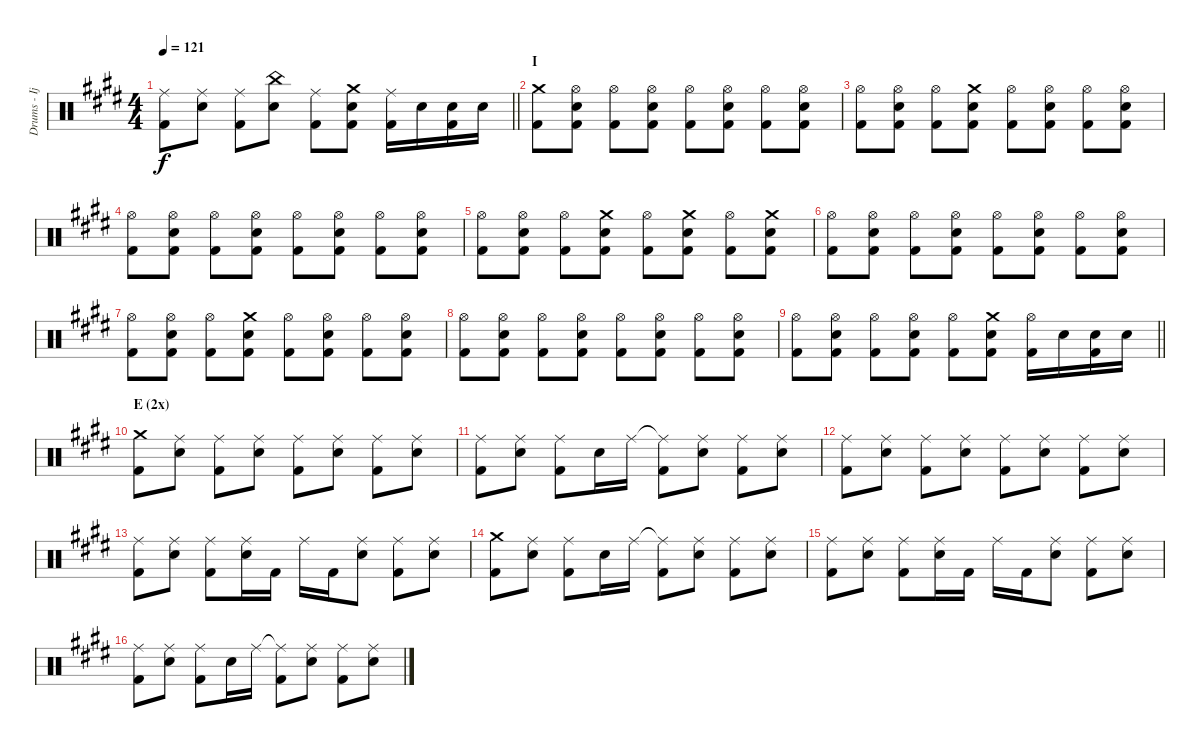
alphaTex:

\track ("Drums - Ijichi Kiyoshi" "Drums - Ij") {instrument percussion}
\staff {score}
\articulation defaults
\ts (4 4)
\tempo 121
\clef neutral
\barLineRight lightlight
\ks e
("Ride (middle)" "Kick (hit) 2").8{dy f} ("Ride (middle)" "Electric Snare (hit)").8 ("Ride (middle)" "Kick (hit) 2").8 ("China (hit)" "Electric Snare (hit)").8 ("Ride (middle)" "Kick (hit) 2").8 ("Crash medium (hit)" "Electric Snare (hit)" "Kick (hit) 2").8 ("Ride (middle)" "Kick (hit) 2").16 "Electric Snare (hit)".16 ("Electric Snare (hit)" "Kick (hit) 2").16 "Electric Snare (hit)".16 |
\section ("" "I")
("Crash medium (hit)" "Kick (hit) 2").8 ("Hi-Hat (open)" "Electric Snare (hit)" "Kick (hit) 2").8 ("Hi-Hat (open)" "Kick (hit) 2").8 ("Hi-Hat (open)" "Electric Snare (hit)" "Kick (hit) 2").8 ("Hi-Hat (open)" "Kick (hit) 2").8 ("Hi-Hat (open)" "Electric Snare (hit)" "Kick (hit) 2").8 ("Hi-Hat (open)" "Kick (hit) 2").8 ("Hi-Hat (open)" "Electric Snare (hit)" "Kick (hit) 2").8 |
("Hi-Hat (open)" "Kick (hit) 2").8 ("Hi-Hat (open)" "Electric Snare (hit)" "Kick (hit) 2").8 ("Hi-Hat (open)" "Kick (hit) 2").8 ("Crash medium (hit)" "Electric Snare (hit)" "Kick (hit) 2").8 ("Hi-Hat (open)" "Kick (hit) 2").8 ("Hi-Hat (open)" "Electric Snare (hit)" "Kick (hit) 2").8 ("Hi-Hat (open)" "Kick (hit) 2").8 ("Hi-Hat (open)" "Electric Snare (hit)" "Kick (hit) 2").8 |
("Hi-Hat (open)" "Kick (hit) 2").8 ("Hi-Hat (open)" "Electric Snare (hit)" "Kick (hit) 2").8 ("Hi-Hat (open)" "Kick (hit) 2").8 ("Hi-Hat (open)" "Electric Snare (hit)" "Kick (hit) 2").8 ("Hi-Hat (open)" "Kick (hit) 2").8 ("Hi-Hat (open)" "Electric Snare (hit)" "Kick (hit) 2").8 ("Hi-Hat (open)" "Kick (hit) 2").8 ("Hi-Hat (open)" "Electric Snare (hit)" "Kick (hit) 2").8 |
("Hi-Hat (open)" "Kick (hit) 2").8 ("Hi-Hat (open)" "Electric Snare (hit)" "Kick (hit) 2").8 ("Hi-Hat (open)" "Kick (hit) 2").8 ("Crash medium (hit)" "Electric Snare (hit)" "Kick (hit) 2").8 ("Hi-Hat (open)" "Kick (hit) 2").8 ("Crash medium (hit)" "Electric Snare (hit)" "Kick (hit) 2").8 ("Hi-Hat (open)" "Kick (hit) 2").8 ("Crash medium (hit)" "Electric Snare (hit)" "Kick (hit) 2").8 |
("Hi-Hat (open)" "Kick (hit) 2").8 ("Hi-Hat (open)" "Electric Snare (hit)" "Kick (hit) 2").8 ("Hi-Hat (open)" "Kick (hit) 2").8 ("Hi-Hat (open)" "Electric Snare (hit)" "Kick (hit) 2").8 ("Hi-Hat (open)" "Kick (hit) 2").8 ("Hi-Hat (open)" "Electric Snare (hit)" "Kick (hit) 2").8 ("Hi-Hat (open)" "Kick (hit) 2").8 ("Hi-Hat (open)" "Electric Snare (hit)" "Kick (hit) 2").8 |
("Hi-Hat (open)" "Kick (hit) 2").8 ("Hi-Hat (open)" "Electric Snare (hit)" "Kick (hit) 2").8 ("Hi-Hat (open)" "Kick (hit) 2").8 ("Crash medium (hit)" "Electric Snare (hit)" "Kick (hit) 2").8 ("Hi-Hat (open)" "Kick (hit) 2").8 ("Hi-Hat (open)" "Electric Snare (hit)" "Kick (hit) 2").8 ("Hi-Hat (open)" "Kick (hit) 2").8 ("Hi-Hat (open)" "Electric Snare (hit)" "Kick (hit) 2").8 |
("Hi-Hat (open)" "Kick (hit) 2").8 ("Hi-Hat (open)" "Electric Snare (hit)" "Kick (hit) 2").8 ("Hi-Hat (open)" "Kick (hit) 2").8 ("Hi-Hat (open)" "Electric Snare (hit)" "Kick (hit) 2").8 ("Hi-Hat (open)" "Kick (hit) 2").8 ("Hi-Hat (open)" "Electric Snare (hit)" "Kick (hit) 2").8 ("Hi-Hat (open)" "Kick (hit) 2").8 ("Hi-Hat (open)" "Electric Snare (hit)" "Kick (hit) 2").8 |
\barLineRight lightlight
("Hi-Hat (open)" "Kick (hit) 2").8 ("Hi-Hat (open)" "Electric Snare (hit)" "Kick (hit) 2").8 ("Hi-Hat (open)" "Kick (hit) 2").8 ("Hi-Hat (open)" "Electric Snare (hit)" "Kick (hit) 2").8 ("Hi-Hat (open)" "Kick (hit) 2").8 ("Crash medium (hit)" "Electric Snare (hit)" "Kick (hit) 2").8 ("Hi-Hat (open)" "Kick (hit) 2").16 "Electric Snare (hit)".16 ("Electric Snare (hit)" "Kick (hit) 2").16 "Electric Snare (hit)".16 |
\section ("" "E (2x)")
("Crash medium (hit)" "Kick (hit) 2").8 ("Ride (middle)" "Electric Snare (hit)").8 ("Ride (middle)" "Kick (hit) 2").8 ("Ride (middle)" "Electric Snare (hit)").8 ("Ride (middle)" "Kick (hit) 2").8 ("Ride (middle)" "Electric Snare (hit)").8 ("Ride (middle)" "Kick (hit) 2").8 ("Ride (middle)" "Electric Snare (hit)").8 |
("Ride (middle)" "Kick (hit) 2").8 ("Ride (middle)" "Electric Snare (hit)").8 ("Ride (middle)" "Kick (hit) 2").8 "Electric Snare (hit)".16 "Ride (middle)".16 ("Ride (middle)"{t} "Kick (hit) 2").8 ("Ride (middle)" "Electric Snare (hit)").8 ("Ride (middle)" "Kick (hit) 2").8 ("Ride (middle)" "Electric Snare (hit)").8 |
("Ride (middle)" "Kick (hit) 2").8 ("Ride (middle)" "Electric Snare (hit)").8 ("Ride (middle)" "Kick (hit) 2").8 ("Ride (middle)" "Electric Snare (hit)").8 ("Ride (middle)" "Kick (hit) 2").8 ("Ride (middle)" "Electric Snare (hit)").8 ("Ride (middle)" "Kick (hit) 2").8 ("Ride (middle)" "Electric Snare (hit)").8 |
("Ride (middle)" "Kick (hit) 2").8 ("Ride (middle)" "Electric Snare (hit)").8 ("Ride (middle)" "Kick (hit) 2").8 ("Ride (middle)" "Electric Snare (hit)").16 "Kick (hit) 2".16 "Ride (middle)".16 "Kick (hit) 2".16 ("Ride (middle)" "Electric Snare (hit)").8 ("Ride (middle)" "Kick (hit) 2").8 ("Ride (middle)" "Electric Snare (hit)").8 |
("Crash medium (hit)" "Kick (hit) 2").8 ("Ride (middle)" "Electric Snare (hit)").8 ("Ride (middle)" "Kick (hit) 2").8 "Electric Snare (hit)".16 "Ride (middle)".16 ("Ride (middle)"{t} "Kick (hit) 2").8 ("Ride (middle)" "Electric Snare (hit)").8 ("Ride (middle)" "Kick (hit) 2").8 ("Ride (middle)" "Electric Snare (hit)").8 |
("Ride (middle)" "Kick (hit) 2").8 ("Ride (middle)" "Electric Snare (hit)").8 ("Ride (middle)" "Kick (hit) 2").8 ("Ride (middle)" "Electric Snare (hit)").16 "Kick (hit) 2".16 "Ride (middle)".16 "Kick (hit) 2".16 ("Ride (middle)" "Electric Snare (hit)").8 ("Ride (middle)" "Kick (hit) 2").8 ("Ride (middle)" "Electric Snare (hit)").8 |
("Ride (middle)" "Kick (hit) 2").8 ("Ride (middle)" "Electric Snare (hit)").8 ("Ride (middle)" "Kick (hit) 2").8 "Electric Snare (hit)".16 "Ride (middle)".16 ("Ride (middle)"{t} "Kick (hit) 2").8 ("Ride (middle)" "Electric Snare (hit)").8 ("Ride (middle)" "Kick (hit) 2").8 ("Ride (middle)" "Electric Snare (hit)").8
